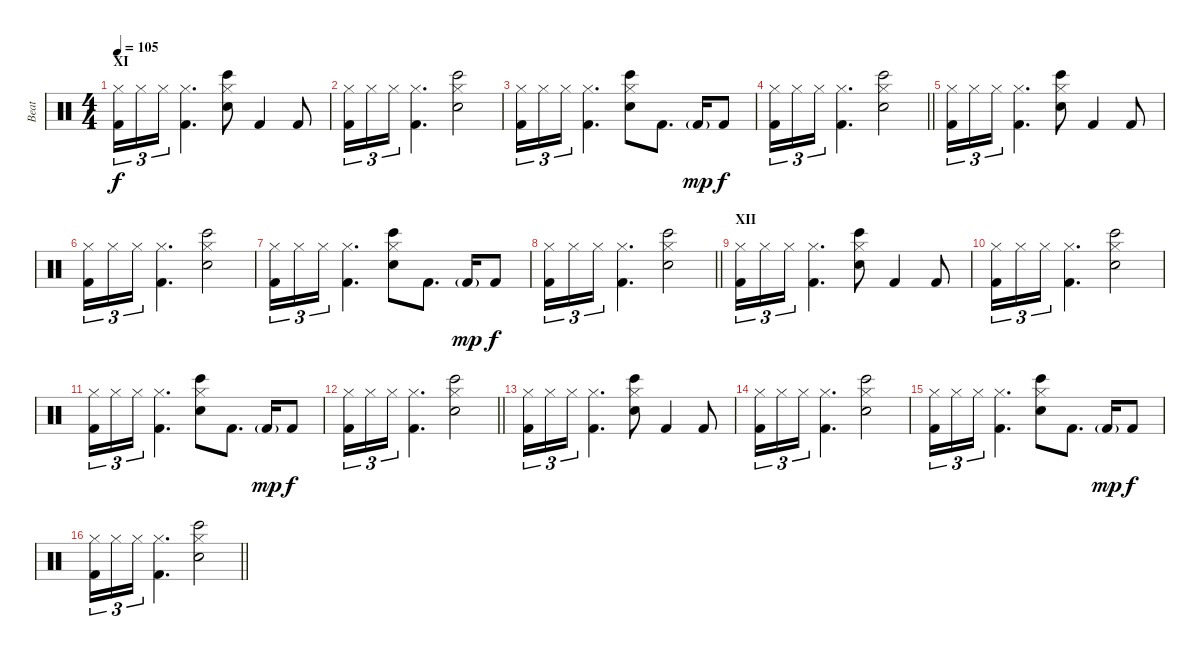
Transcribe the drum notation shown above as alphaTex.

\track ("Beat" "Beat") {instrument percussion}
\staff {score}
\articulation defaults
\ts (4 4)
\section ("" "XI")
\tempo 105
\clef neutral
\ks c
("Hi-Hat (closed)" "Kick (hit) 2").16{tu (3 2) dy f} "Hi-Hat (closed)".16{tu (3 2)} "Hi-Hat (closed)".16{tu (3 2)} ("Hi-Hat (closed)" "Kick (hit) 2").4{d} ("Hi-Hat (closed)" "Snare (hit) 2" "Bongo High (hit)").8 "Kick (hit) 2".4 "Kick (hit) 2".8 |
("Hi-Hat (closed)" "Kick (hit) 2").16{tu (3 2)} "Hi-Hat (closed)".16{tu (3 2)} "Hi-Hat (closed)".16{tu (3 2)} ("Hi-Hat (closed)" "Kick (hit) 2").4{d} ("Hi-Hat (closed)" "Snare (hit) 2" "Bongo High (hit)").2 |
("Hi-Hat (closed)" "Kick (hit) 2").16{tu (3 2)} "Hi-Hat (closed)".16{tu (3 2)} "Hi-Hat (closed)".16{tu (3 2)} ("Hi-Hat (closed)" "Kick (hit) 2").4{d} ("Hi-Hat (closed)" "Snare (hit) 2" "Bongo High (hit)").8 "Kick (hit) 2".8{d} "Kick (hit) 2"{g}.16{dy mp} "Kick (hit) 2".8{dy f} |
\barLineRight lightlight
("Hi-Hat (closed)" "Kick (hit) 2").16{tu (3 2)} "Hi-Hat (closed)".16{tu (3 2)} "Hi-Hat (closed)".16{tu (3 2)} ("Hi-Hat (closed)" "Kick (hit) 2").4{d} ("Hi-Hat (closed)" "Snare (hit) 2" "Bongo High (hit)").2 |
("Hi-Hat (closed)" "Kick (hit) 2").16{tu (3 2)} "Hi-Hat (closed)".16{tu (3 2)} "Hi-Hat (closed)".16{tu (3 2)} ("Hi-Hat (closed)" "Kick (hit) 2").4{d} ("Hi-Hat (closed)" "Snare (hit) 2" "Bongo High (hit)").8 "Kick (hit) 2".4 "Kick (hit) 2".8 |
("Hi-Hat (closed)" "Kick (hit) 2").16{tu (3 2)} "Hi-Hat (closed)".16{tu (3 2)} "Hi-Hat (closed)".16{tu (3 2)} ("Hi-Hat (closed)" "Kick (hit) 2").4{d} ("Hi-Hat (closed)" "Snare (hit) 2" "Bongo High (hit)").2 |
("Hi-Hat (closed)" "Kick (hit) 2").16{tu (3 2)} "Hi-Hat (closed)".16{tu (3 2)} "Hi-Hat (closed)".16{tu (3 2)} ("Hi-Hat (closed)" "Kick (hit) 2").4{d} ("Hi-Hat (closed)" "Snare (hit) 2" "Bongo High (hit)").8 "Kick (hit) 2".8{d} "Kick (hit) 2"{g}.16{dy mp} "Kick (hit) 2".8{dy f} |
\barLineRight lightlight
("Hi-Hat (closed)" "Kick (hit) 2").16{tu (3 2)} "Hi-Hat (closed)".16{tu (3 2)} "Hi-Hat (closed)".16{tu (3 2)} ("Hi-Hat (closed)" "Kick (hit) 2").4{d} ("Hi-Hat (closed)" "Snare (hit) 2" "Bongo High (hit)").2 |
\section ("" "XII")
("Hi-Hat (closed)" "Kick (hit) 2").16{tu (3 2)} "Hi-Hat (closed)".16{tu (3 2)} "Hi-Hat (closed)".16{tu (3 2)} ("Hi-Hat (closed)" "Kick (hit) 2").4{d} ("Hi-Hat (closed)" "Snare (hit) 2" "Bongo High (hit)").8 "Kick (hit) 2".4 "Kick (hit) 2".8 |
("Hi-Hat (closed)" "Kick (hit) 2").16{tu (3 2)} "Hi-Hat (closed)".16{tu (3 2)} "Hi-Hat (closed)".16{tu (3 2)} ("Hi-Hat (closed)" "Kick (hit) 2").4{d} ("Hi-Hat (closed)" "Snare (hit) 2" "Bongo High (hit)").2 |
("Hi-Hat (closed)" "Kick (hit) 2").16{tu (3 2)} "Hi-Hat (closed)".16{tu (3 2)} "Hi-Hat (closed)".16{tu (3 2)} ("Hi-Hat (closed)" "Kick (hit) 2").4{d} ("Hi-Hat (closed)" "Snare (hit) 2" "Bongo High (hit)").8 "Kick (hit) 2".8{d} "Kick (hit) 2"{g}.16{dy mp} "Kick (hit) 2".8{dy f} |
\barLineRight lightlight
("Hi-Hat (closed)" "Kick (hit) 2").16{tu (3 2)} "Hi-Hat (closed)".16{tu (3 2)} "Hi-Hat (closed)".16{tu (3 2)} ("Hi-Hat (closed)" "Kick (hit) 2").4{d} ("Hi-Hat (closed)" "Snare (hit) 2" "Bongo High (hit)").2 |
("Hi-Hat (closed)" "Kick (hit) 2").16{tu (3 2)} "Hi-Hat (closed)".16{tu (3 2)} "Hi-Hat (closed)".16{tu (3 2)} ("Hi-Hat (closed)" "Kick (hit) 2").4{d} ("Hi-Hat (closed)" "Snare (hit) 2" "Bongo High (hit)").8 "Kick (hit) 2".4 "Kick (hit) 2".8 |
("Hi-Hat (closed)" "Kick (hit) 2").16{tu (3 2)} "Hi-Hat (closed)".16{tu (3 2)} "Hi-Hat (closed)".16{tu (3 2)} ("Hi-Hat (closed)" "Kick (hit) 2").4{d} ("Hi-Hat (closed)" "Snare (hit) 2" "Bongo High (hit)").2 |
("Hi-Hat (closed)" "Kick (hit) 2").16{tu (3 2)} "Hi-Hat (closed)".16{tu (3 2)} "Hi-Hat (closed)".16{tu (3 2)} ("Hi-Hat (closed)" "Kick (hit) 2").4{d} ("Hi-Hat (closed)" "Snare (hit) 2" "Bongo High (hit)").8 "Kick (hit) 2".8{d} "Kick (hit) 2"{g}.16{dy mp} "Kick (hit) 2".8{dy f} |
\barLineRight lightlight
("Hi-Hat (closed)" "Kick (hit) 2").16{tu (3 2)} "Hi-Hat (closed)".16{tu (3 2)} "Hi-Hat (closed)".16{tu (3 2)} ("Hi-Hat (closed)" "Kick (hit) 2").4{d} ("Hi-Hat (closed)" "Snare (hit) 2" "Bongo High (hit)").2
